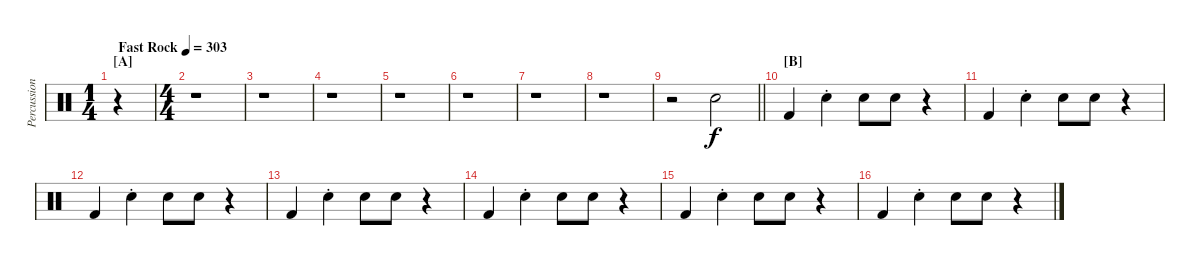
\track ("Percussions" "Percussion") {instrument percussion}
\staff {score}
\articulation defaults
\ts (1 4)
\section ("" "[A]")
\tempo (303 "Fast Rock")
\clef neutral
\ks c
r.4{dy f} |
\ts (4 4)
r.1 |
r.1 |
r.1 |
r.1 |
r.1 |
r.1 |
r.1 |
\barLineRight lightlight
r.2 "Electric Snare (hit)".2 |
\section ("" "[B]")
"Kick (hit) 2".4 "Electric Snare (hit)"{st}.4 "Electric Snare (hit)".8 "Electric Snare (hit)".8 r.4 |
"Kick (hit) 2".4 "Electric Snare (hit)"{st}.4 "Electric Snare (hit)".8 "Electric Snare (hit)".8 r.4 |
"Kick (hit) 2".4 "Electric Snare (hit)"{st}.4 "Electric Snare (hit)".8 "Electric Snare (hit)".8 r.4 |
"Kick (hit) 2".4 "Electric Snare (hit)"{st}.4 "Electric Snare (hit)".8 "Electric Snare (hit)".8 r.4 |
"Kick (hit) 2".4 "Electric Snare (hit)"{st}.4 "Electric Snare (hit)".8 "Electric Snare (hit)".8 r.4 |
"Kick (hit) 2".4 "Electric Snare (hit)"{st}.4 "Electric Snare (hit)".8 "Electric Snare (hit)".8 r.4 |
"Kick (hit) 2".4 "Electric Snare (hit)"{st}.4 "Electric Snare (hit)".8 "Electric Snare (hit)".8 r.4
